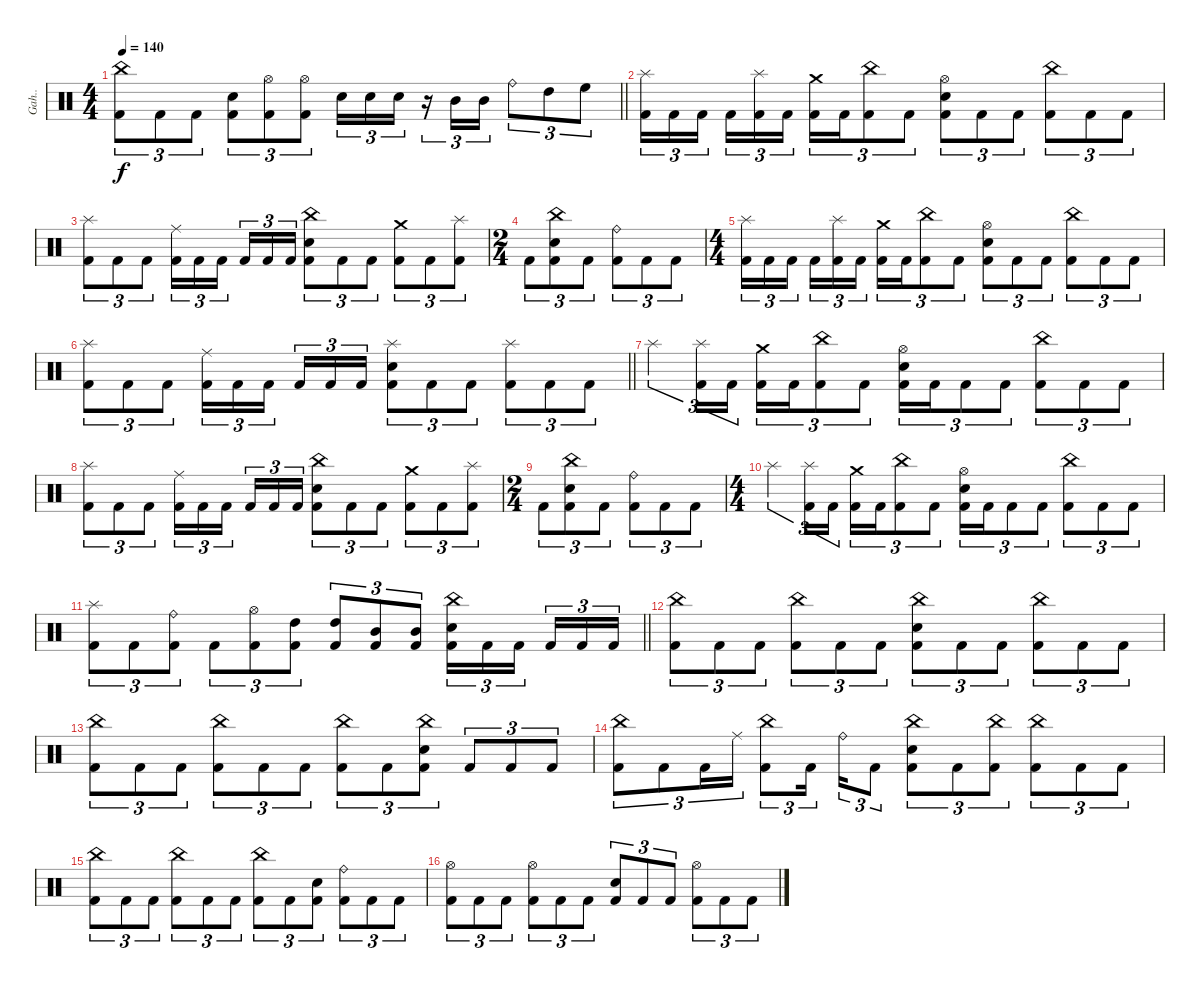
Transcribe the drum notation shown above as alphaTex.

\track ("Gah.." "Gah..") {instrument percussion}
\staff {score}
\articulation defaults
\ts (4 4)
\section ("" "")
\tempo 140
\clef neutral
\barLineRight lightlight
\ks c
("China (hit)" "Kick (hit) 2").8{tu (3 2) dy f} "Kick (hit) 2".8{tu (3 2)} "Kick (hit) 2".8{tu (3 2)} ("Electric Snare (hit)" "Kick (hit) 2").8{tu (3 2)} ("Hi-Hat (open)" "Kick (hit) 2").8{tu (3 2)} ("Hi-Hat (open)" "Kick (hit) 2").8{tu (3 2)} "Electric Snare (hit)".16{tu (3 2)} "Electric Snare (hit)".16{tu (3 2)} "Electric Snare (hit)".16{tu (3 2)} r.16{tu (3 2)} "Mid Tom (hit)".16{tu (3 2)} "Mid Tom (hit)".16{tu (3 2)} "Ride (bell)".8{tu (3 2)} "High Tom (hit)".8{tu (3 2)} "High Floor Tom (hit)".8{tu (3 2)} |
\section ("" "")
("Splash (hit)" "Kick (hit) 2").16{tu (3 2)} "Kick (hit) 2".16{tu (3 2)} "Kick (hit) 2".16{tu (3 2) beam splitsecondary} "Kick (hit) 2".16{tu (3 2)} ("Splash (hit)" "Kick (hit) 2").16{tu (3 2)} "Kick (hit) 2".16{tu (3 2)} ("Crash medium (hit)" "Kick (hit) 2").16{tu (3 2)} "Kick (hit) 2".16{tu (3 2)} ("China (hit)" "Kick (hit) 2").8{tu (3 2)} "Kick (hit) 2".8{tu (3 2)} ("Hi-Hat (open)" "Electric Snare (hit)" "Kick (hit) 2").8{tu (3 2)} "Kick (hit) 2".8{tu (3 2)} "Kick (hit) 2".8{tu (3 2)} ("China (hit)" "Kick (hit) 2").8{tu (3 2)} "Kick (hit) 2".8{tu (3 2)} "Kick (hit) 2".8{tu (3 2)} |
("Splash (hit)" "Kick (hit) 2").8{tu (3 2)} "Kick (hit) 2".8{tu (3 2)} "Kick (hit) 2".8{tu (3 2)} ("Ride (middle)" "Kick (hit) 2").16{tu (3 2)} "Kick (hit) 2".16{tu (3 2)} "Kick (hit) 2".16{tu (3 2) beam splitsecondary} "Kick (hit) 2".16{tu (3 2)} "Kick (hit) 2".16{tu (3 2)} "Kick (hit) 2".16{tu (3 2)} ("China (hit)" "Electric Snare (hit)" "Kick (hit) 2").8{tu (3 2)} "Kick (hit) 2".8{tu (3 2)} "Kick (hit) 2".8{tu (3 2)} ("Crash medium (hit)" "Kick (hit) 2").8{tu (3 2)} "Kick (hit) 2".8{tu (3 2)} ("Splash (hit)" "Kick (hit) 2").8{tu (3 2)} |
\ts (2 4)
"Kick (hit) 2".8{tu (3 2)} ("China (hit)" "Electric Snare (hit)" "Kick (hit) 2").8{tu (3 2)} "Kick (hit) 2".8{tu (3 2)} ("Ride (bell)" "Kick (hit) 2").8{tu (3 2)} "Kick (hit) 2".8{tu (3 2)} "Kick (hit) 2".8{tu (3 2)} |
\ts (4 4)
("Splash (hit)" "Kick (hit) 2").16{tu (3 2)} "Kick (hit) 2".16{tu (3 2)} "Kick (hit) 2".16{tu (3 2) beam splitsecondary} "Kick (hit) 2".16{tu (3 2)} ("Splash (hit)" "Kick (hit) 2").16{tu (3 2)} "Kick (hit) 2".16{tu (3 2)} ("Crash medium (hit)" "Kick (hit) 2").16{tu (3 2)} "Kick (hit) 2".16{tu (3 2)} ("China (hit)" "Kick (hit) 2").8{tu (3 2)} "Kick (hit) 2".8{tu (3 2)} ("Hi-Hat (open)" "Electric Snare (hit)" "Kick (hit) 2").8{tu (3 2)} "Kick (hit) 2".8{tu (3 2)} "Kick (hit) 2".8{tu (3 2)} ("China (hit)" "Kick (hit) 2").8{tu (3 2)} "Kick (hit) 2".8{tu (3 2)} "Kick (hit) 2".8{tu (3 2)} |
\barLineRight lightlight
("Splash (hit)" "Kick (hit) 2").8{tu (3 2)} "Kick (hit) 2".8{tu (3 2)} "Kick (hit) 2".8{tu (3 2)} ("Ride (middle)" "Kick (hit) 2").16{tu (3 2)} "Kick (hit) 2".16{tu (3 2)} "Kick (hit) 2".16{tu (3 2) beam splitsecondary} "Kick (hit) 2".16{tu (3 2)} "Kick (hit) 2".16{tu (3 2)} "Kick (hit) 2".16{tu (3 2)} ("Splash (hit)" "Electric Snare (hit)" "Kick (hit) 2").8{tu (3 2)} "Kick (hit) 2".8{tu (3 2)} "Kick (hit) 2".8{tu (3 2)} ("Splash (hit)" "Kick (hit) 2").8{tu (3 2)} "Kick (hit) 2".8{tu (3 2)} "Kick (hit) 2".8{tu (3 2)} |
\section ("" "")
"Splash (hit)".4{tu (3 2)} ("Splash (hit)" "Kick (hit) 2").16{tu (3 2)} "Kick (hit) 2".16{tu (3 2)} ("Crash medium (hit)" "Kick (hit) 2").16{tu (3 2)} "Kick (hit) 2".16{tu (3 2)} ("China (hit)" "Kick (hit) 2").8{tu (3 2)} "Kick (hit) 2".8{tu (3 2)} ("Hi-Hat (open)" "Electric Snare (hit)" "Kick (hit) 2").16{tu (3 2)} "Kick (hit) 2".16{tu (3 2)} "Kick (hit) 2".8{tu (3 2)} "Kick (hit) 2".8{tu (3 2)} ("China (hit)" "Kick (hit) 2").8{tu (3 2)} "Kick (hit) 2".8{tu (3 2)} "Kick (hit) 2".8{tu (3 2)} |
("Splash (hit)" "Kick (hit) 2").8{tu (3 2)} "Kick (hit) 2".8{tu (3 2)} "Kick (hit) 2".8{tu (3 2)} ("Ride (middle)" "Kick (hit) 2").16{tu (3 2)} "Kick (hit) 2".16{tu (3 2)} "Kick (hit) 2".16{tu (3 2) beam splitsecondary} "Kick (hit) 2".16{tu (3 2)} "Kick (hit) 2".16{tu (3 2)} "Kick (hit) 2".16{tu (3 2)} ("China (hit)" "Electric Snare (hit)" "Kick (hit) 2").8{tu (3 2)} "Kick (hit) 2".8{tu (3 2)} "Kick (hit) 2".8{tu (3 2)} ("Crash medium (hit)" "Kick (hit) 2").8{tu (3 2)} "Kick (hit) 2".8{tu (3 2)} ("Splash (hit)" "Kick (hit) 2").8{tu (3 2)} |
\ts (2 4)
"Kick (hit) 2".8{tu (3 2)} ("China (hit)" "Electric Snare (hit)" "Kick (hit) 2").8{tu (3 2)} "Kick (hit) 2".8{tu (3 2)} ("Ride (bell)" "Kick (hit) 2").8{tu (3 2)} "Kick (hit) 2".8{tu (3 2)} "Kick (hit) 2".8{tu (3 2)} |
\ts (4 4)
"Splash (hit)".4{tu (3 2)} ("Splash (hit)" "Kick (hit) 2").16{tu (3 2)} "Kick (hit) 2".16{tu (3 2)} ("Crash medium (hit)" "Kick (hit) 2").16{tu (3 2)} "Kick (hit) 2".16{tu (3 2)} ("China (hit)" "Kick (hit) 2").8{tu (3 2)} "Kick (hit) 2".8{tu (3 2)} ("Hi-Hat (open)" "Electric Snare (hit)" "Kick (hit) 2").16{tu (3 2)} "Kick (hit) 2".16{tu (3 2)} "Kick (hit) 2".8{tu (3 2)} "Kick (hit) 2".8{tu (3 2)} ("China (hit)" "Kick (hit) 2").8{tu (3 2)} "Kick (hit) 2".8{tu (3 2)} "Kick (hit) 2".8{tu (3 2)} |
\barLineRight lightlight
("Splash (hit)" "Kick (hit) 2").8{tu (3 2)} "Kick (hit) 2".8{tu (3 2)} ("Ride (bell)" "Kick (hit) 2").8{tu (3 2)} "Kick (hit) 2".8{tu (3 2)} ("Hi-Hat (open)" "Kick (hit) 2").8{tu (3 2)} ("High Tom (hit)" "Kick (hit) 2").8{tu (3 2)} ("High Tom (hit)" "Kick (hit) 2").8{tu (3 2)} ("Mid Tom (hit)" "Kick (hit) 2").8{tu (3 2)} ("Mid Tom (hit)" "Kick (hit) 2").8{tu (3 2)} ("China (hit)" "Electric Snare (hit)" "Kick (hit) 2").16{tu (3 2)} "Kick (hit) 2".16{tu (3 2)} "Kick (hit) 2".16{tu (3 2) beam splitsecondary} "Kick (hit) 2".16{tu (3 2)} "Kick (hit) 2".16{tu (3 2)} "Kick (hit) 2".16{tu (3 2)} |
\section ("" "")
("China (hit)" "Kick (hit) 2").8{tu (3 2)} "Kick (hit) 2".8{tu (3 2)} "Kick (hit) 2".8{tu (3 2)} ("China (hit)" "Kick (hit) 2").8{tu (3 2)} "Kick (hit) 2".8{tu (3 2)} "Kick (hit) 2".8{tu (3 2)} ("China (hit)" "Electric Snare (hit)" "Kick (hit) 2").8{tu (3 2)} "Kick (hit) 2".8{tu (3 2)} "Kick (hit) 2".8{tu (3 2)} ("China (hit)" "Kick (hit) 2").8{tu (3 2)} "Kick (hit) 2".8{tu (3 2)} "Kick (hit) 2".8{tu (3 2)} |
("China (hit)" "Kick (hit) 2").8{tu (3 2)} "Kick (hit) 2".8{tu (3 2)} "Kick (hit) 2".8{tu (3 2)} ("China (hit)" "Kick (hit) 2").8{tu (3 2)} "Kick (hit) 2".8{tu (3 2)} "Kick (hit) 2".8{tu (3 2)} ("China (hit)" "Kick (hit) 2").8{tu (3 2)} "Kick (hit) 2".8{tu (3 2)} ("China (hit)" "Electric Snare (hit)" "Kick (hit) 2").8{tu (3 2)} "Kick (hit) 2".8{tu (3 2)} "Kick (hit) 2".8{tu (3 2)} "Kick (hit) 2".8{tu (3 2)} |
("China (hit)" "Kick (hit) 2").8{tu (3 2)} "Kick (hit) 2".8{tu (3 2)} "Kick (hit) 2".16{tu (3 2)} "Ride (middle)".16{tu (3 2)} ("China (hit)" "Kick (hit) 2").8{tu (3 2)} "Kick (hit) 2".16{tu (3 2) beam splitsecondary} "Ride (bell)".16{tu (3 2)} "Kick (hit) 2".8{tu (3 2)} ("China (hit)" "Electric Snare (hit)" "Kick (hit) 2").8{tu (3 2)} "Kick (hit) 2".8{tu (3 2)} ("China (hit)" "Kick (hit) 2").8{tu (3 2)} ("China (hit)" "Kick (hit) 2").8{tu (3 2)} "Kick (hit) 2".8{tu (3 2)} "Kick (hit) 2".8{tu (3 2)} |
("China (hit)" "Kick (hit) 2").8{tu (3 2)} "Kick (hit) 2".8{tu (3 2)} "Kick (hit) 2".8{tu (3 2)} ("China (hit)" "Kick (hit) 2").8{tu (3 2)} "Kick (hit) 2".8{tu (3 2)} "Kick (hit) 2".8{tu (3 2)} ("China (hit)" "Kick (hit) 2").8{tu (3 2)} "Kick (hit) 2".8{tu (3 2)} ("Electric Snare (hit)" "Kick (hit) 2").8{tu (3 2)} ("Ride (bell)" "Kick (hit) 2").8{tu (3 2)} "Kick (hit) 2".8{tu (3 2)} "Kick (hit) 2".8{tu (3 2)} |
("Hi-Hat (open)" "Kick (hit) 2").8{tu (3 2)} "Kick (hit) 2".8{tu (3 2)} "Kick (hit) 2".8{tu (3 2)} ("Hi-Hat (open)" "Kick (hit) 2").8{tu (3 2)} "Kick (hit) 2".8{tu (3 2)} "Kick (hit) 2".8{tu (3 2)} ("Electric Snare (hit)" "Kick (hit) 2").8{tu (3 2)} "Kick (hit) 2".8{tu (3 2)} "Kick (hit) 2".8{tu (3 2)} ("Hi-Hat (open)" "Kick (hit) 2").8{tu (3 2)} "Kick (hit) 2".8{tu (3 2)} "Kick (hit) 2".8{tu (3 2)}
